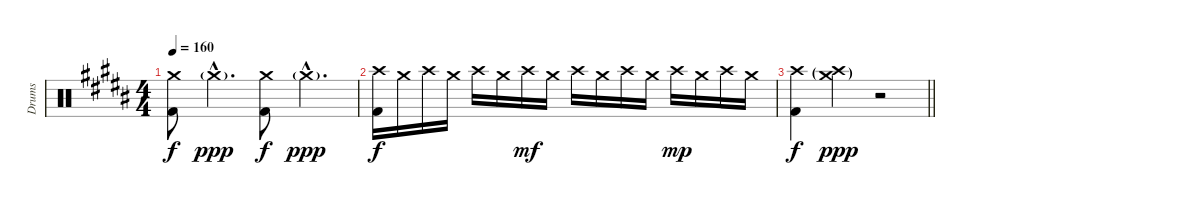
\track ("Drums" "Drums") {instrument percussion}
\staff {score}
\articulation defaults
\ts (4 4)
\tempo 160
\clef neutral
\ks g#minor
("Crash medium (hit)" "Kick (hit) 2").8{dy f} "Crash medium (hit)"{g hac}.4{d dy ppp} ("Crash medium (hit)" "Kick (hit) 2").8{dy f} "Crash medium (hit)"{g hac}.4{d dy ppp} |
("Crash high (hit)" "Kick (hit) 2").16{dy f} "Crash medium (hit)".16 "Crash high (hit)".16 "Crash medium (hit)".16 "Crash high (hit)".16 "Crash medium (hit)".16 "Crash high (hit)".16{dy mf} "Crash medium (hit)".16 "Crash high (hit)".16 "Crash medium (hit)".16 "Crash high (hit)".16 "Crash medium (hit)".16 "Crash high (hit)".16{dy mp} "Crash medium (hit)".16 "Crash high (hit)".16 "Crash medium (hit)".16 |
\barLineRight lightlight
("Crash high (hit)" "Kick (hit) 2").4{dy f} ("Crash high (hit)"{g} "Crash medium (hit)"{g}).4{dy ppp} r.2
